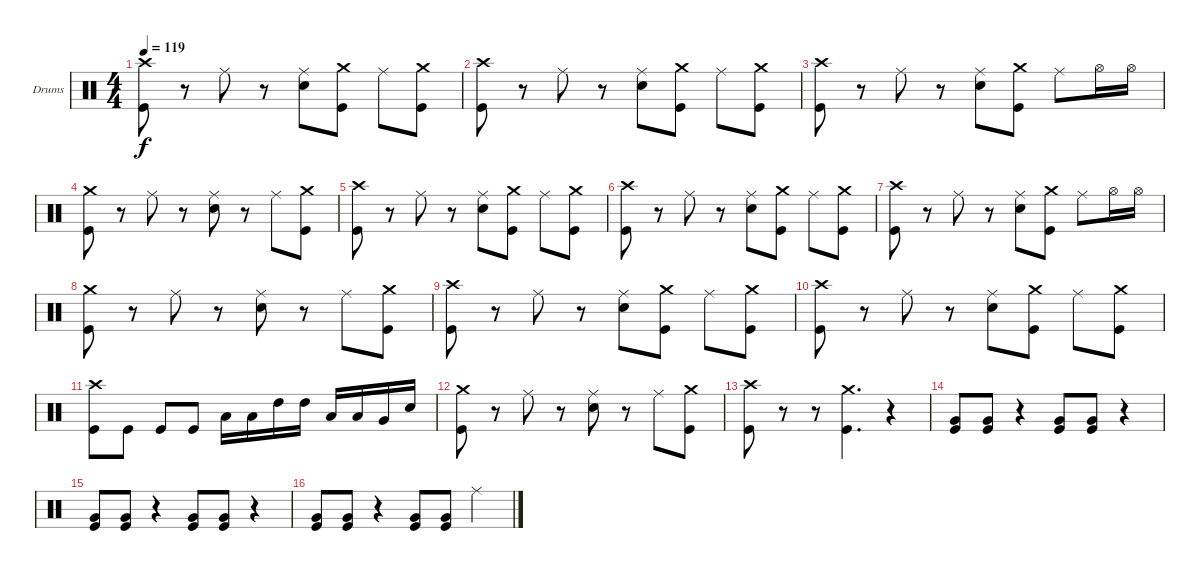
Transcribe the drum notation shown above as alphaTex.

\bracketExtendMode groupsimilarinstruments
\firstSystemTrackNameOrientation horizontal
\otherSystemsTrackNameOrientation horizontal
\track ("Drumkit" "Drums") {instrument percussion}
\staff {score}
\articulation defaults
\ts (4 4)
\tempo 119
\clef neutral
\ks c
("Crash high (hit)" "Kick (hit)").8{dy f} r.8 "Ride (middle)".8 r.8 ("Ride (middle)" "Snare (hit) 2").8 ("Crash medium (hit)" "Kick (hit)").8 "Ride (middle)".8 ("Crash medium (hit)" "Kick (hit)").8 |
("Crash high (hit)" "Kick (hit)").8 r.8 "Ride (middle)".8 r.8 ("Ride (middle)" "Snare (hit) 2").8 ("Crash medium (hit)" "Kick (hit)").8 "Ride (middle)".8 ("Crash medium (hit)" "Kick (hit)").8 |
("Crash high (hit)" "Kick (hit)").8 r.8 "Ride (middle)".8 r.8 ("Ride (middle)" "Snare (hit) 2").8 ("Crash medium (hit)" "Kick (hit)").8 "Ride (middle)".8 "Hi-Hat (open)".16 "Hi-Hat (open)".16 |
("Crash medium (hit)" "Kick (hit)").8 r.8 "Ride (middle)".8 r.8 ("Ride (middle)" "Snare (hit) 2").8 r.8 "Ride (middle)".8 ("Crash medium (hit)" "Kick (hit)").8 |
("Crash high (hit)" "Kick (hit)").8 r.8 "Ride (middle)".8 r.8 ("Ride (middle)" "Snare (hit) 2").8 ("Crash medium (hit)" "Kick (hit)").8 "Ride (middle)".8 ("Crash medium (hit)" "Kick (hit)").8 |
("Crash high (hit)" "Kick (hit)").8 r.8 "Ride (middle)".8 r.8 ("Ride (middle)" "Snare (hit) 2").8 ("Crash medium (hit)" "Kick (hit)").8 "Ride (middle)".8 ("Crash medium (hit)" "Kick (hit)").8 |
("Crash high (hit)" "Kick (hit)").8 r.8 "Ride (middle)".8 r.8 ("Ride (middle)" "Snare (hit) 2").8 ("Crash medium (hit)" "Kick (hit)").8 "Ride (middle)".8 "Hi-Hat (open)".16 "Hi-Hat (open)".16 |
("Crash medium (hit)" "Kick (hit)").8 r.8 "Ride (middle)".8 r.8 ("Ride (middle)" "Snare (hit) 2").8 r.8 "Ride (middle)".8 ("Crash medium (hit)" "Kick (hit)").8 |
("Crash high (hit)" "Kick (hit)").8 r.8 "Ride (middle)".8 r.8 ("Ride (middle)" "Snare (hit) 2").8 ("Crash medium (hit)" "Kick (hit)").8 "Ride (middle)".8 ("Crash medium (hit)" "Kick (hit)").8 |
("Crash high (hit)" "Kick (hit)").8 r.8 "Ride (middle)".8 r.8 ("Ride (middle)" "Snare (hit) 2").8 ("Crash medium (hit)" "Kick (hit)").8 "Ride (middle)".8 ("Crash medium (hit)" "Kick (hit)").8 |
("Crash high (hit)" "Kick (hit)").8 "Kick (hit)".8 "Kick (hit)".8 "Kick (hit)".8 "Low Tom (hit)".16 "Low Tom (hit)".16 "High Tom (hit)".16 "High Tom (hit)".16 "Low Tom (hit)".16 "Low Tom (hit)".16 "Very Low Tom (hit)".16 "Snare (hit) 2".16 |
("Crash medium (hit)" "Kick (hit)").8 r.8 "Ride (middle)".8 r.8 ("Ride (middle)" "Snare (hit) 2").8 r.8 "Ride (middle)".8 ("Crash medium (hit)" "Kick (hit)").8 |
("Crash high (hit)" "Kick (hit)").8 r.8 r.8 ("Crash medium (hit)" "Kick (hit)").4{d} r.4 |
("Very Low Tom (hit)" "Kick (hit)").8 ("Very Low Tom (hit)" "Kick (hit)").8 r.4 ("Very Low Tom (hit)" "Kick (hit)").8 ("Very Low Tom (hit)" "Kick (hit)").8 r.4 |
("Very Low Tom (hit)" "Kick (hit)").8 ("Very Low Tom (hit)" "Kick (hit)").8 r.4 ("Very Low Tom (hit)" "Kick (hit)").8 ("Very Low Tom (hit)" "Kick (hit)").8 r.4 |
("Very Low Tom (hit)" "Kick (hit)").8 ("Very Low Tom (hit)" "Kick (hit)").8 r.4 ("Very Low Tom (hit)" "Kick (hit)").8 ("Very Low Tom (hit)" "Kick (hit)").8 "Ride (middle)".4
